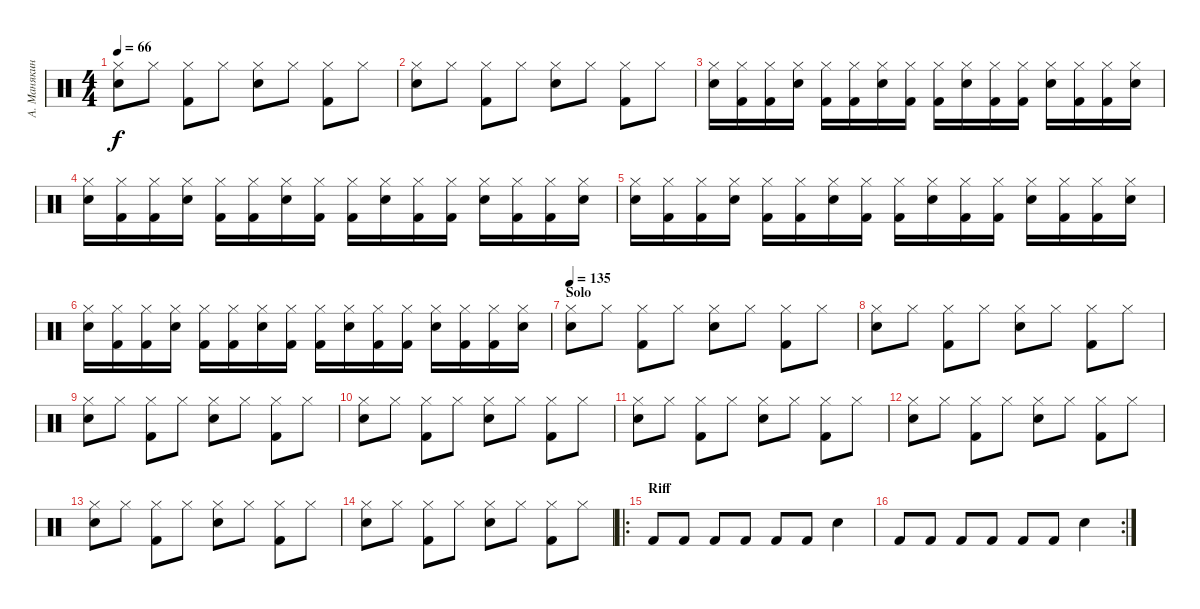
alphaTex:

\track ("А. Манякин" "А. Манякин") {instrument percussion}
\staff {score}
\articulation defaults
\ts (4 4)
\tempo 66
\clef neutral
\ks c
("Hi-Hat (closed)" "Snare (hit) 2").8{dy f} "Hi-Hat (closed)".8 ("Hi-Hat (closed)" "Kick (hit) 2").8 "Hi-Hat (closed)".8 ("Hi-Hat (closed)" "Snare (hit) 2").8 "Hi-Hat (closed)".8 ("Hi-Hat (closed)" "Kick (hit) 2").8 "Hi-Hat (closed)".8 |
("Hi-Hat (closed)" "Snare (hit) 2").8 "Hi-Hat (closed)".8 ("Hi-Hat (closed)" "Kick (hit) 2").8 "Hi-Hat (closed)".8 ("Hi-Hat (closed)" "Snare (hit) 2").8 "Hi-Hat (closed)".8 ("Hi-Hat (closed)" "Kick (hit) 2").8 "Hi-Hat (closed)".8 |
("Hi-Hat (closed)" "Snare (hit) 2").16 ("Hi-Hat (closed)" "Kick (hit) 2").16 ("Hi-Hat (closed)" "Kick (hit) 2").16 ("Hi-Hat (closed)" "Snare (hit) 2").16 ("Hi-Hat (closed)" "Kick (hit) 2").16 ("Hi-Hat (closed)" "Kick (hit) 2").16 ("Hi-Hat (closed)" "Snare (hit) 2").16 ("Hi-Hat (closed)" "Kick (hit) 2").16 ("Hi-Hat (closed)" "Kick (hit) 2").16 ("Hi-Hat (closed)" "Snare (hit) 2").16 ("Hi-Hat (closed)" "Kick (hit) 2").16 ("Hi-Hat (closed)" "Kick (hit) 2").16 ("Hi-Hat (closed)" "Snare (hit) 2").16 ("Hi-Hat (closed)" "Kick (hit) 2").16 ("Hi-Hat (closed)" "Kick (hit) 2").16 ("Hi-Hat (closed)" "Snare (hit) 2").16 |
("Hi-Hat (closed)" "Snare (hit) 2").16 ("Hi-Hat (closed)" "Kick (hit) 2").16 ("Hi-Hat (closed)" "Kick (hit) 2").16 ("Hi-Hat (closed)" "Snare (hit) 2").16 ("Hi-Hat (closed)" "Kick (hit) 2").16 ("Hi-Hat (closed)" "Kick (hit) 2").16 ("Hi-Hat (closed)" "Snare (hit) 2").16 ("Hi-Hat (closed)" "Kick (hit) 2").16 ("Hi-Hat (closed)" "Kick (hit) 2").16 ("Hi-Hat (closed)" "Snare (hit) 2").16 ("Hi-Hat (closed)" "Kick (hit) 2").16 ("Hi-Hat (closed)" "Kick (hit) 2").16 ("Hi-Hat (closed)" "Snare (hit) 2").16 ("Hi-Hat (closed)" "Kick (hit) 2").16 ("Hi-Hat (closed)" "Kick (hit) 2").16 ("Hi-Hat (closed)" "Snare (hit) 2").16 |
("Hi-Hat (closed)" "Snare (hit) 2").16 ("Hi-Hat (closed)" "Kick (hit) 2").16 ("Hi-Hat (closed)" "Kick (hit) 2").16 ("Hi-Hat (closed)" "Snare (hit) 2").16 ("Hi-Hat (closed)" "Kick (hit) 2").16 ("Hi-Hat (closed)" "Kick (hit) 2").16 ("Hi-Hat (closed)" "Snare (hit) 2").16 ("Hi-Hat (closed)" "Kick (hit) 2").16 ("Hi-Hat (closed)" "Kick (hit) 2").16 ("Hi-Hat (closed)" "Snare (hit) 2").16 ("Hi-Hat (closed)" "Kick (hit) 2").16 ("Hi-Hat (closed)" "Kick (hit) 2").16 ("Hi-Hat (closed)" "Snare (hit) 2").16 ("Hi-Hat (closed)" "Kick (hit) 2").16 ("Hi-Hat (closed)" "Kick (hit) 2").16 ("Hi-Hat (closed)" "Snare (hit) 2").16 |
("Hi-Hat (closed)" "Snare (hit) 2").16 ("Hi-Hat (closed)" "Kick (hit) 2").16 ("Hi-Hat (closed)" "Kick (hit) 2").16 ("Hi-Hat (closed)" "Snare (hit) 2").16 ("Hi-Hat (closed)" "Kick (hit) 2").16 ("Hi-Hat (closed)" "Kick (hit) 2").16 ("Hi-Hat (closed)" "Snare (hit) 2").16 ("Hi-Hat (closed)" "Kick (hit) 2").16 ("Hi-Hat (closed)" "Kick (hit) 2").16 ("Hi-Hat (closed)" "Snare (hit) 2").16 ("Hi-Hat (closed)" "Kick (hit) 2").16 ("Hi-Hat (closed)" "Kick (hit) 2").16 ("Hi-Hat (closed)" "Snare (hit) 2").16 ("Hi-Hat (closed)" "Kick (hit) 2").16 ("Hi-Hat (closed)" "Kick (hit) 2").16 ("Hi-Hat (closed)" "Snare (hit) 2").16 |
\section ("" "Solo")
\tempo 135
("Hi-Hat (closed)" "Snare (hit) 2").8 "Hi-Hat (closed)".8 ("Hi-Hat (closed)" "Kick (hit) 2").8 "Hi-Hat (closed)".8 ("Hi-Hat (closed)" "Snare (hit) 2").8 "Hi-Hat (closed)".8 ("Hi-Hat (closed)" "Kick (hit) 2").8 "Hi-Hat (closed)".8 |
("Hi-Hat (closed)" "Snare (hit) 2").8 "Hi-Hat (closed)".8 ("Hi-Hat (closed)" "Kick (hit) 2").8 "Hi-Hat (closed)".8 ("Hi-Hat (closed)" "Snare (hit) 2").8 "Hi-Hat (closed)".8 ("Hi-Hat (closed)" "Kick (hit) 2").8 "Hi-Hat (closed)".8 |
("Hi-Hat (closed)" "Snare (hit) 2").8 "Hi-Hat (closed)".8 ("Hi-Hat (closed)" "Kick (hit) 2").8 "Hi-Hat (closed)".8 ("Hi-Hat (closed)" "Snare (hit) 2").8 "Hi-Hat (closed)".8 ("Hi-Hat (closed)" "Kick (hit) 2").8 "Hi-Hat (closed)".8 |
("Hi-Hat (closed)" "Snare (hit) 2").8 "Hi-Hat (closed)".8 ("Hi-Hat (closed)" "Kick (hit) 2").8 "Hi-Hat (closed)".8 ("Hi-Hat (closed)" "Snare (hit) 2").8 "Hi-Hat (closed)".8 ("Hi-Hat (closed)" "Kick (hit) 2").8 "Hi-Hat (closed)".8 |
("Hi-Hat (closed)" "Snare (hit) 2").8 "Hi-Hat (closed)".8 ("Hi-Hat (closed)" "Kick (hit) 2").8 "Hi-Hat (closed)".8 ("Hi-Hat (closed)" "Snare (hit) 2").8 "Hi-Hat (closed)".8 ("Hi-Hat (closed)" "Kick (hit) 2").8 "Hi-Hat (closed)".8 |
("Hi-Hat (closed)" "Snare (hit) 2").8 "Hi-Hat (closed)".8 ("Hi-Hat (closed)" "Kick (hit) 2").8 "Hi-Hat (closed)".8 ("Hi-Hat (closed)" "Snare (hit) 2").8 "Hi-Hat (closed)".8 ("Hi-Hat (closed)" "Kick (hit) 2").8 "Hi-Hat (closed)".8 |
("Hi-Hat (closed)" "Snare (hit) 2").8 "Hi-Hat (closed)".8 ("Hi-Hat (closed)" "Kick (hit) 2").8 "Hi-Hat (closed)".8 ("Hi-Hat (closed)" "Snare (hit) 2").8 "Hi-Hat (closed)".8 ("Hi-Hat (closed)" "Kick (hit) 2").8 "Hi-Hat (closed)".8 |
("Hi-Hat (closed)" "Snare (hit) 2").8 "Hi-Hat (closed)".8 ("Hi-Hat (closed)" "Kick (hit) 2").8 "Hi-Hat (closed)".8 ("Hi-Hat (closed)" "Snare (hit) 2").8 "Hi-Hat (closed)".8 ("Hi-Hat (closed)" "Kick (hit) 2").8 "Hi-Hat (closed)".8 |
\ro
\section ("" "Riff")
"Kick (hit) 2".8 "Kick (hit) 2".8 "Kick (hit) 2".8 "Kick (hit) 2".8 "Kick (hit) 2".8 "Kick (hit) 2".8 "Snare (hit) 2".4 |
\rc 2 "Kick (hit) 2".8 "Kick (hit) 2".8 "Kick (hit) 2".8 "Kick (hit) 2".8 "Kick (hit) 2".8 "Kick (hit) 2".8 "Snare (hit) 2".4
